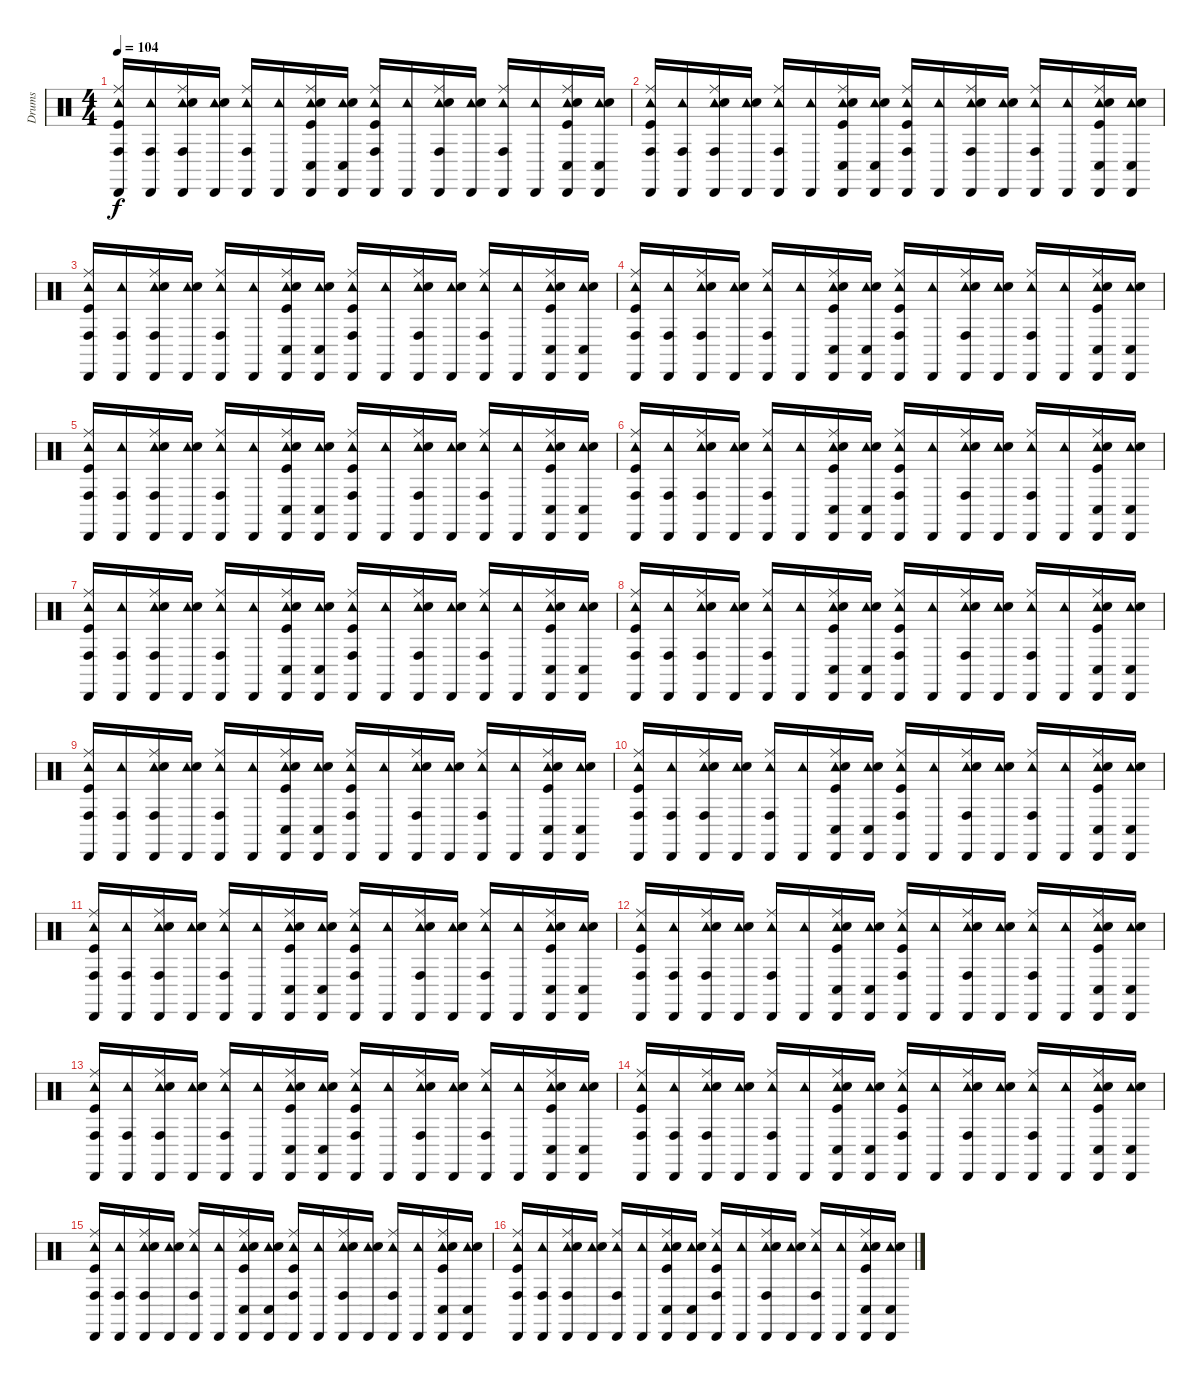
\track ("Drums" "Drums") {instrument percussion}
\staff {score}
\articulation defaults
\ts (4 4)
\tempo 104
\clef neutral
\ks c
("Cabasa (hit)" "Conga high (hit)" "Tambourine (hit)" "Ride (middle)" "Kick (hit)").16{dy f} ("Cabasa (hit)" "Conga high (hit)" "Tambourine (hit)").16 ("Cabasa (hit)" "Conga high (hit)" "Tambourine (hit)" "Ride (middle)" "Electric Snare (hit)").16 ("Cabasa (hit)" "Tambourine (hit)" "Electric Snare (hit)").16 ("Cabasa (hit)" "Conga high (hit)" "Tambourine (hit)" "Ride (middle)").16 ("Cabasa (hit)" "Tambourine (hit)").16 ("Cabasa (hit)" "Conga low (hit)" "Tambourine (hit)" "Ride (middle)" "Electric Snare (hit)" "Kick (hit)").16 ("Cabasa (hit)" "Conga low (hit)" "Tambourine (hit)" "Electric Snare (hit)").16 ("Cabasa (hit)" "Conga high (hit)" "Tambourine (hit)" "Ride (middle)" "Kick (hit)").16 ("Cabasa (hit)" "Tambourine (hit)").16 ("Cabasa (hit)" "Conga high (hit)" "Tambourine (hit)" "Ride (middle)" "Electric Snare (hit)").16 ("Cabasa (hit)" "Tambourine (hit)" "Electric Snare (hit)").16 ("Cabasa (hit)" "Conga high (hit)" "Tambourine (hit)" "Ride (middle)").16 ("Cabasa (hit)" "Tambourine (hit)").16 ("Cabasa (hit)" "Conga low (hit)" "Tambourine (hit)" "Ride (middle)" "Electric Snare (hit)" "Kick (hit)").16 ("Cabasa (hit)" "Conga low (hit)" "Tambourine (hit)" "Electric Snare (hit)").16 |
("Cabasa (hit)" "Conga high (hit)" "Tambourine (hit)" "Ride (middle)" "Kick (hit)").16 ("Cabasa (hit)" "Conga high (hit)" "Tambourine (hit)").16 ("Cabasa (hit)" "Conga high (hit)" "Tambourine (hit)" "Ride (middle)" "Electric Snare (hit)").16 ("Cabasa (hit)" "Tambourine (hit)" "Electric Snare (hit)").16 ("Cabasa (hit)" "Conga high (hit)" "Tambourine (hit)" "Ride (middle)").16 ("Cabasa (hit)" "Tambourine (hit)").16 ("Cabasa (hit)" "Conga low (hit)" "Tambourine (hit)" "Ride (middle)" "Electric Snare (hit)" "Kick (hit)").16 ("Cabasa (hit)" "Conga low (hit)" "Tambourine (hit)" "Electric Snare (hit)").16 ("Cabasa (hit)" "Conga high (hit)" "Tambourine (hit)" "Ride (middle)" "Kick (hit)").16 ("Cabasa (hit)" "Tambourine (hit)").16 ("Cabasa (hit)" "Conga high (hit)" "Tambourine (hit)" "Ride (middle)" "Electric Snare (hit)").16 ("Cabasa (hit)" "Tambourine (hit)" "Electric Snare (hit)").16 ("Cabasa (hit)" "Conga high (hit)" "Tambourine (hit)" "Ride (middle)").16 ("Cabasa (hit)" "Tambourine (hit)").16 ("Cabasa (hit)" "Conga low (hit)" "Tambourine (hit)" "Ride (middle)" "Electric Snare (hit)" "Kick (hit)").16 ("Cabasa (hit)" "Conga low (hit)" "Tambourine (hit)" "Electric Snare (hit)").16 |
("Cabasa (hit)" "Conga high (hit)" "Tambourine (hit)" "Ride (middle)" "Kick (hit)").16 ("Cabasa (hit)" "Conga high (hit)" "Tambourine (hit)").16 ("Cabasa (hit)" "Conga high (hit)" "Tambourine (hit)" "Ride (middle)" "Electric Snare (hit)").16 ("Cabasa (hit)" "Tambourine (hit)" "Electric Snare (hit)").16 ("Cabasa (hit)" "Conga high (hit)" "Tambourine (hit)" "Ride (middle)").16 ("Cabasa (hit)" "Tambourine (hit)").16 ("Cabasa (hit)" "Conga low (hit)" "Tambourine (hit)" "Ride (middle)" "Electric Snare (hit)" "Kick (hit)").16 ("Cabasa (hit)" "Conga low (hit)" "Tambourine (hit)" "Electric Snare (hit)").16 ("Cabasa (hit)" "Conga high (hit)" "Tambourine (hit)" "Ride (middle)" "Kick (hit)").16 ("Cabasa (hit)" "Tambourine (hit)").16 ("Cabasa (hit)" "Conga high (hit)" "Tambourine (hit)" "Ride (middle)" "Electric Snare (hit)").16 ("Cabasa (hit)" "Tambourine (hit)" "Electric Snare (hit)").16 ("Cabasa (hit)" "Conga high (hit)" "Tambourine (hit)" "Ride (middle)").16 ("Cabasa (hit)" "Tambourine (hit)").16 ("Cabasa (hit)" "Conga low (hit)" "Tambourine (hit)" "Ride (middle)" "Electric Snare (hit)" "Kick (hit)").16 ("Cabasa (hit)" "Conga low (hit)" "Tambourine (hit)" "Electric Snare (hit)").16 |
("Cabasa (hit)" "Conga high (hit)" "Tambourine (hit)" "Ride (middle)" "Kick (hit)").16 ("Cabasa (hit)" "Conga high (hit)" "Tambourine (hit)").16 ("Cabasa (hit)" "Conga high (hit)" "Tambourine (hit)" "Ride (middle)" "Electric Snare (hit)").16 ("Cabasa (hit)" "Tambourine (hit)" "Electric Snare (hit)").16 ("Cabasa (hit)" "Conga high (hit)" "Tambourine (hit)" "Ride (middle)").16 ("Cabasa (hit)" "Tambourine (hit)").16 ("Cabasa (hit)" "Conga low (hit)" "Tambourine (hit)" "Ride (middle)" "Electric Snare (hit)" "Kick (hit)").16 ("Cabasa (hit)" "Conga low (hit)" "Tambourine (hit)" "Electric Snare (hit)").16 ("Cabasa (hit)" "Conga high (hit)" "Tambourine (hit)" "Ride (middle)" "Kick (hit)").16 ("Cabasa (hit)" "Tambourine (hit)").16 ("Cabasa (hit)" "Conga high (hit)" "Tambourine (hit)" "Ride (middle)" "Electric Snare (hit)").16 ("Cabasa (hit)" "Tambourine (hit)" "Electric Snare (hit)").16 ("Cabasa (hit)" "Conga high (hit)" "Tambourine (hit)" "Ride (middle)").16 ("Cabasa (hit)" "Tambourine (hit)").16 ("Cabasa (hit)" "Conga low (hit)" "Tambourine (hit)" "Ride (middle)" "Electric Snare (hit)" "Kick (hit)").16 ("Cabasa (hit)" "Conga low (hit)" "Tambourine (hit)" "Electric Snare (hit)").16 |
("Cabasa (hit)" "Conga high (hit)" "Tambourine (hit)" "Ride (middle)" "Kick (hit)").16 ("Cabasa (hit)" "Conga high (hit)" "Tambourine (hit)").16 ("Cabasa (hit)" "Conga high (hit)" "Tambourine (hit)" "Ride (middle)" "Electric Snare (hit)").16 ("Cabasa (hit)" "Tambourine (hit)" "Electric Snare (hit)").16 ("Cabasa (hit)" "Conga high (hit)" "Tambourine (hit)" "Ride (middle)").16 ("Cabasa (hit)" "Tambourine (hit)").16 ("Cabasa (hit)" "Conga low (hit)" "Tambourine (hit)" "Ride (middle)" "Electric Snare (hit)" "Kick (hit)").16 ("Cabasa (hit)" "Conga low (hit)" "Tambourine (hit)" "Electric Snare (hit)").16 ("Cabasa (hit)" "Conga high (hit)" "Tambourine (hit)" "Ride (middle)" "Kick (hit)").16 ("Cabasa (hit)" "Tambourine (hit)").16 ("Cabasa (hit)" "Conga high (hit)" "Tambourine (hit)" "Ride (middle)" "Electric Snare (hit)").16 ("Cabasa (hit)" "Tambourine (hit)" "Electric Snare (hit)").16 ("Cabasa (hit)" "Conga high (hit)" "Tambourine (hit)" "Ride (middle)").16 ("Cabasa (hit)" "Tambourine (hit)").16 ("Cabasa (hit)" "Conga low (hit)" "Tambourine (hit)" "Ride (middle)" "Electric Snare (hit)" "Kick (hit)").16 ("Cabasa (hit)" "Conga low (hit)" "Tambourine (hit)" "Electric Snare (hit)").16 |
("Cabasa (hit)" "Conga high (hit)" "Tambourine (hit)" "Ride (middle)" "Kick (hit)").16 ("Cabasa (hit)" "Conga high (hit)" "Tambourine (hit)").16 ("Cabasa (hit)" "Conga high (hit)" "Tambourine (hit)" "Ride (middle)" "Electric Snare (hit)").16 ("Cabasa (hit)" "Tambourine (hit)" "Electric Snare (hit)").16 ("Cabasa (hit)" "Conga high (hit)" "Tambourine (hit)" "Ride (middle)").16 ("Cabasa (hit)" "Tambourine (hit)").16 ("Cabasa (hit)" "Conga low (hit)" "Tambourine (hit)" "Ride (middle)" "Electric Snare (hit)" "Kick (hit)").16 ("Cabasa (hit)" "Conga low (hit)" "Tambourine (hit)" "Electric Snare (hit)").16 ("Cabasa (hit)" "Conga high (hit)" "Tambourine (hit)" "Ride (middle)" "Kick (hit)").16 ("Cabasa (hit)" "Tambourine (hit)").16 ("Cabasa (hit)" "Conga high (hit)" "Tambourine (hit)" "Ride (middle)" "Electric Snare (hit)").16 ("Cabasa (hit)" "Tambourine (hit)" "Electric Snare (hit)").16 ("Cabasa (hit)" "Conga high (hit)" "Tambourine (hit)" "Ride (middle)").16 ("Cabasa (hit)" "Tambourine (hit)").16 ("Cabasa (hit)" "Conga low (hit)" "Tambourine (hit)" "Ride (middle)" "Electric Snare (hit)" "Kick (hit)").16 ("Cabasa (hit)" "Conga low (hit)" "Tambourine (hit)" "Electric Snare (hit)").16 |
("Cabasa (hit)" "Conga high (hit)" "Tambourine (hit)" "Ride (middle)" "Kick (hit)").16 ("Cabasa (hit)" "Conga high (hit)" "Tambourine (hit)").16 ("Cabasa (hit)" "Conga high (hit)" "Tambourine (hit)" "Ride (middle)" "Electric Snare (hit)").16 ("Cabasa (hit)" "Tambourine (hit)" "Electric Snare (hit)").16 ("Cabasa (hit)" "Conga high (hit)" "Tambourine (hit)" "Ride (middle)").16 ("Cabasa (hit)" "Tambourine (hit)").16 ("Cabasa (hit)" "Conga low (hit)" "Tambourine (hit)" "Ride (middle)" "Electric Snare (hit)" "Kick (hit)").16 ("Cabasa (hit)" "Conga low (hit)" "Tambourine (hit)" "Electric Snare (hit)").16 ("Cabasa (hit)" "Conga high (hit)" "Tambourine (hit)" "Ride (middle)" "Kick (hit)").16 ("Cabasa (hit)" "Tambourine (hit)").16 ("Cabasa (hit)" "Conga high (hit)" "Tambourine (hit)" "Ride (middle)" "Electric Snare (hit)").16 ("Cabasa (hit)" "Tambourine (hit)" "Electric Snare (hit)").16 ("Cabasa (hit)" "Conga high (hit)" "Tambourine (hit)" "Ride (middle)").16 ("Cabasa (hit)" "Tambourine (hit)").16 ("Cabasa (hit)" "Conga low (hit)" "Tambourine (hit)" "Ride (middle)" "Electric Snare (hit)" "Kick (hit)").16 ("Cabasa (hit)" "Conga low (hit)" "Tambourine (hit)" "Electric Snare (hit)").16 |
("Cabasa (hit)" "Conga high (hit)" "Tambourine (hit)" "Ride (middle)" "Kick (hit)").16 ("Cabasa (hit)" "Conga high (hit)" "Tambourine (hit)").16 ("Cabasa (hit)" "Conga high (hit)" "Tambourine (hit)" "Ride (middle)" "Electric Snare (hit)").16 ("Cabasa (hit)" "Tambourine (hit)" "Electric Snare (hit)").16 ("Cabasa (hit)" "Conga high (hit)" "Tambourine (hit)" "Ride (middle)").16 ("Cabasa (hit)" "Tambourine (hit)").16 ("Cabasa (hit)" "Conga low (hit)" "Tambourine (hit)" "Ride (middle)" "Electric Snare (hit)" "Kick (hit)").16 ("Cabasa (hit)" "Conga low (hit)" "Tambourine (hit)" "Electric Snare (hit)").16 ("Cabasa (hit)" "Conga high (hit)" "Tambourine (hit)" "Ride (middle)" "Kick (hit)").16 ("Cabasa (hit)" "Tambourine (hit)").16 ("Cabasa (hit)" "Conga high (hit)" "Tambourine (hit)" "Ride (middle)" "Electric Snare (hit)").16 ("Cabasa (hit)" "Tambourine (hit)" "Electric Snare (hit)").16 ("Cabasa (hit)" "Conga high (hit)" "Tambourine (hit)" "Ride (middle)").16 ("Cabasa (hit)" "Tambourine (hit)").16 ("Cabasa (hit)" "Conga low (hit)" "Tambourine (hit)" "Ride (middle)" "Electric Snare (hit)" "Kick (hit)").16 ("Cabasa (hit)" "Conga low (hit)" "Tambourine (hit)" "Electric Snare (hit)").16 |
("Cabasa (hit)" "Conga high (hit)" "Tambourine (hit)" "Ride (middle)" "Kick (hit)").16 ("Cabasa (hit)" "Conga high (hit)" "Tambourine (hit)").16 ("Cabasa (hit)" "Conga high (hit)" "Tambourine (hit)" "Ride (middle)" "Electric Snare (hit)").16 ("Cabasa (hit)" "Tambourine (hit)" "Electric Snare (hit)").16 ("Cabasa (hit)" "Conga high (hit)" "Tambourine (hit)" "Ride (middle)").16 ("Cabasa (hit)" "Tambourine (hit)").16 ("Cabasa (hit)" "Conga low (hit)" "Tambourine (hit)" "Ride (middle)" "Electric Snare (hit)" "Kick (hit)").16 ("Cabasa (hit)" "Conga low (hit)" "Tambourine (hit)" "Electric Snare (hit)").16 ("Cabasa (hit)" "Conga high (hit)" "Tambourine (hit)" "Ride (middle)" "Kick (hit)").16 ("Cabasa (hit)" "Tambourine (hit)").16 ("Cabasa (hit)" "Conga high (hit)" "Tambourine (hit)" "Ride (middle)" "Electric Snare (hit)").16 ("Cabasa (hit)" "Tambourine (hit)" "Electric Snare (hit)").16 ("Cabasa (hit)" "Conga high (hit)" "Tambourine (hit)" "Ride (middle)").16 ("Cabasa (hit)" "Tambourine (hit)").16 ("Cabasa (hit)" "Conga low (hit)" "Tambourine (hit)" "Ride (middle)" "Electric Snare (hit)" "Kick (hit)").16 ("Cabasa (hit)" "Conga low (hit)" "Tambourine (hit)" "Electric Snare (hit)").16 |
("Cabasa (hit)" "Conga high (hit)" "Tambourine (hit)" "Ride (middle)" "Kick (hit)").16 ("Cabasa (hit)" "Conga high (hit)" "Tambourine (hit)").16 ("Cabasa (hit)" "Conga high (hit)" "Tambourine (hit)" "Ride (middle)" "Electric Snare (hit)").16 ("Cabasa (hit)" "Tambourine (hit)" "Electric Snare (hit)").16 ("Cabasa (hit)" "Conga high (hit)" "Tambourine (hit)" "Ride (middle)").16 ("Cabasa (hit)" "Tambourine (hit)").16 ("Cabasa (hit)" "Conga low (hit)" "Tambourine (hit)" "Ride (middle)" "Electric Snare (hit)" "Kick (hit)").16 ("Cabasa (hit)" "Conga low (hit)" "Tambourine (hit)" "Electric Snare (hit)").16 ("Cabasa (hit)" "Conga high (hit)" "Tambourine (hit)" "Ride (middle)" "Kick (hit)").16 ("Cabasa (hit)" "Tambourine (hit)").16 ("Cabasa (hit)" "Conga high (hit)" "Tambourine (hit)" "Ride (middle)" "Electric Snare (hit)").16 ("Cabasa (hit)" "Tambourine (hit)" "Electric Snare (hit)").16 ("Cabasa (hit)" "Conga high (hit)" "Tambourine (hit)" "Ride (middle)").16 ("Cabasa (hit)" "Tambourine (hit)").16 ("Cabasa (hit)" "Conga low (hit)" "Tambourine (hit)" "Ride (middle)" "Electric Snare (hit)" "Kick (hit)").16 ("Cabasa (hit)" "Conga low (hit)" "Tambourine (hit)" "Electric Snare (hit)").16 |
("Cabasa (hit)" "Conga high (hit)" "Tambourine (hit)" "Ride (middle)" "Kick (hit)").16 ("Cabasa (hit)" "Conga high (hit)" "Tambourine (hit)").16 ("Cabasa (hit)" "Conga high (hit)" "Tambourine (hit)" "Ride (middle)" "Electric Snare (hit)").16 ("Cabasa (hit)" "Tambourine (hit)" "Electric Snare (hit)").16 ("Cabasa (hit)" "Conga high (hit)" "Tambourine (hit)" "Ride (middle)").16 ("Cabasa (hit)" "Tambourine (hit)").16 ("Cabasa (hit)" "Conga low (hit)" "Tambourine (hit)" "Ride (middle)" "Electric Snare (hit)" "Kick (hit)").16 ("Cabasa (hit)" "Conga low (hit)" "Tambourine (hit)" "Electric Snare (hit)").16 ("Cabasa (hit)" "Conga high (hit)" "Tambourine (hit)" "Ride (middle)" "Kick (hit)").16 ("Cabasa (hit)" "Tambourine (hit)").16 ("Cabasa (hit)" "Conga high (hit)" "Tambourine (hit)" "Ride (middle)" "Electric Snare (hit)").16 ("Cabasa (hit)" "Tambourine (hit)" "Electric Snare (hit)").16 ("Cabasa (hit)" "Conga high (hit)" "Tambourine (hit)" "Ride (middle)").16 ("Cabasa (hit)" "Tambourine (hit)").16 ("Cabasa (hit)" "Conga low (hit)" "Tambourine (hit)" "Ride (middle)" "Electric Snare (hit)" "Kick (hit)").16 ("Cabasa (hit)" "Conga low (hit)" "Tambourine (hit)" "Electric Snare (hit)").16 |
("Cabasa (hit)" "Conga high (hit)" "Tambourine (hit)" "Ride (middle)" "Kick (hit)").16 ("Cabasa (hit)" "Conga high (hit)" "Tambourine (hit)").16 ("Cabasa (hit)" "Conga high (hit)" "Tambourine (hit)" "Ride (middle)" "Electric Snare (hit)").16 ("Cabasa (hit)" "Tambourine (hit)" "Electric Snare (hit)").16 ("Cabasa (hit)" "Conga high (hit)" "Tambourine (hit)" "Ride (middle)").16 ("Cabasa (hit)" "Tambourine (hit)").16 ("Cabasa (hit)" "Conga low (hit)" "Tambourine (hit)" "Ride (middle)" "Electric Snare (hit)" "Kick (hit)").16 ("Cabasa (hit)" "Conga low (hit)" "Tambourine (hit)" "Electric Snare (hit)").16 ("Cabasa (hit)" "Conga high (hit)" "Tambourine (hit)" "Ride (middle)" "Kick (hit)").16 ("Cabasa (hit)" "Tambourine (hit)").16 ("Cabasa (hit)" "Conga high (hit)" "Tambourine (hit)" "Ride (middle)" "Electric Snare (hit)").16 ("Cabasa (hit)" "Tambourine (hit)" "Electric Snare (hit)").16 ("Cabasa (hit)" "Conga high (hit)" "Tambourine (hit)" "Ride (middle)").16 ("Cabasa (hit)" "Tambourine (hit)").16 ("Cabasa (hit)" "Conga low (hit)" "Tambourine (hit)" "Ride (middle)" "Electric Snare (hit)" "Kick (hit)").16 ("Cabasa (hit)" "Conga low (hit)" "Tambourine (hit)" "Electric Snare (hit)").16 |
("Cabasa (hit)" "Conga high (hit)" "Tambourine (hit)" "Ride (middle)" "Kick (hit)").16 ("Cabasa (hit)" "Conga high (hit)" "Tambourine (hit)").16 ("Cabasa (hit)" "Conga high (hit)" "Tambourine (hit)" "Ride (middle)" "Electric Snare (hit)").16 ("Cabasa (hit)" "Tambourine (hit)" "Electric Snare (hit)").16 ("Cabasa (hit)" "Conga high (hit)" "Tambourine (hit)" "Ride (middle)").16 ("Cabasa (hit)" "Tambourine (hit)").16 ("Cabasa (hit)" "Conga low (hit)" "Tambourine (hit)" "Ride (middle)" "Electric Snare (hit)" "Kick (hit)").16 ("Cabasa (hit)" "Conga low (hit)" "Tambourine (hit)" "Electric Snare (hit)").16 ("Cabasa (hit)" "Conga high (hit)" "Tambourine (hit)" "Ride (middle)" "Kick (hit)").16 ("Cabasa (hit)" "Tambourine (hit)").16 ("Cabasa (hit)" "Conga high (hit)" "Tambourine (hit)" "Ride (middle)" "Electric Snare (hit)").16 ("Cabasa (hit)" "Tambourine (hit)" "Electric Snare (hit)").16 ("Cabasa (hit)" "Conga high (hit)" "Tambourine (hit)" "Ride (middle)").16 ("Cabasa (hit)" "Tambourine (hit)").16 ("Cabasa (hit)" "Conga low (hit)" "Tambourine (hit)" "Ride (middle)" "Electric Snare (hit)" "Kick (hit)").16 ("Cabasa (hit)" "Conga low (hit)" "Tambourine (hit)" "Electric Snare (hit)").16 |
("Cabasa (hit)" "Conga high (hit)" "Tambourine (hit)" "Ride (middle)" "Kick (hit)").16 ("Cabasa (hit)" "Conga high (hit)" "Tambourine (hit)").16 ("Cabasa (hit)" "Conga high (hit)" "Tambourine (hit)" "Ride (middle)" "Electric Snare (hit)").16 ("Cabasa (hit)" "Tambourine (hit)" "Electric Snare (hit)").16 ("Cabasa (hit)" "Conga high (hit)" "Tambourine (hit)" "Ride (middle)").16 ("Cabasa (hit)" "Tambourine (hit)").16 ("Cabasa (hit)" "Conga low (hit)" "Tambourine (hit)" "Ride (middle)" "Electric Snare (hit)" "Kick (hit)").16 ("Cabasa (hit)" "Conga low (hit)" "Tambourine (hit)" "Electric Snare (hit)").16 ("Cabasa (hit)" "Conga high (hit)" "Tambourine (hit)" "Ride (middle)" "Kick (hit)").16 ("Cabasa (hit)" "Tambourine (hit)").16 ("Cabasa (hit)" "Conga high (hit)" "Tambourine (hit)" "Ride (middle)" "Electric Snare (hit)").16 ("Cabasa (hit)" "Tambourine (hit)" "Electric Snare (hit)").16 ("Cabasa (hit)" "Conga high (hit)" "Tambourine (hit)" "Ride (middle)").16 ("Cabasa (hit)" "Tambourine (hit)").16 ("Cabasa (hit)" "Conga low (hit)" "Tambourine (hit)" "Ride (middle)" "Electric Snare (hit)" "Kick (hit)").16 ("Cabasa (hit)" "Conga low (hit)" "Tambourine (hit)" "Electric Snare (hit)").16 |
("Cabasa (hit)" "Conga high (hit)" "Tambourine (hit)" "Ride (middle)" "Kick (hit)").16 ("Cabasa (hit)" "Conga high (hit)" "Tambourine (hit)").16 ("Cabasa (hit)" "Conga high (hit)" "Tambourine (hit)" "Ride (middle)" "Electric Snare (hit)").16 ("Cabasa (hit)" "Tambourine (hit)" "Electric Snare (hit)").16 ("Cabasa (hit)" "Conga high (hit)" "Tambourine (hit)" "Ride (middle)").16 ("Cabasa (hit)" "Tambourine (hit)").16 ("Cabasa (hit)" "Conga low (hit)" "Tambourine (hit)" "Ride (middle)" "Electric Snare (hit)" "Kick (hit)").16 ("Cabasa (hit)" "Conga low (hit)" "Tambourine (hit)" "Electric Snare (hit)").16 ("Cabasa (hit)" "Conga high (hit)" "Tambourine (hit)" "Ride (middle)" "Kick (hit)").16 ("Cabasa (hit)" "Tambourine (hit)").16 ("Cabasa (hit)" "Conga high (hit)" "Tambourine (hit)" "Ride (middle)" "Electric Snare (hit)").16 ("Cabasa (hit)" "Tambourine (hit)" "Electric Snare (hit)").16 ("Cabasa (hit)" "Conga high (hit)" "Tambourine (hit)" "Ride (middle)").16 ("Cabasa (hit)" "Tambourine (hit)").16 ("Cabasa (hit)" "Conga low (hit)" "Tambourine (hit)" "Ride (middle)" "Electric Snare (hit)" "Kick (hit)").16 ("Cabasa (hit)" "Conga low (hit)" "Tambourine (hit)" "Electric Snare (hit)").16 |
("Cabasa (hit)" "Conga high (hit)" "Tambourine (hit)" "Ride (middle)" "Kick (hit)").16 ("Cabasa (hit)" "Conga high (hit)" "Tambourine (hit)").16 ("Cabasa (hit)" "Conga high (hit)" "Tambourine (hit)" "Ride (middle)" "Electric Snare (hit)").16 ("Cabasa (hit)" "Tambourine (hit)" "Electric Snare (hit)").16 ("Cabasa (hit)" "Conga high (hit)" "Tambourine (hit)" "Ride (middle)").16 ("Cabasa (hit)" "Tambourine (hit)").16 ("Cabasa (hit)" "Conga low (hit)" "Tambourine (hit)" "Ride (middle)" "Electric Snare (hit)" "Kick (hit)").16 ("Cabasa (hit)" "Conga low (hit)" "Tambourine (hit)" "Electric Snare (hit)").16 ("Cabasa (hit)" "Conga high (hit)" "Tambourine (hit)" "Ride (middle)" "Kick (hit)").16 ("Cabasa (hit)" "Tambourine (hit)").16 ("Cabasa (hit)" "Conga high (hit)" "Tambourine (hit)" "Ride (middle)" "Electric Snare (hit)").16 ("Cabasa (hit)" "Tambourine (hit)" "Electric Snare (hit)").16 ("Cabasa (hit)" "Conga high (hit)" "Tambourine (hit)" "Ride (middle)").16 ("Cabasa (hit)" "Tambourine (hit)").16 ("Cabasa (hit)" "Conga low (hit)" "Tambourine (hit)" "Ride (middle)" "Electric Snare (hit)" "Kick (hit)").16 ("Cabasa (hit)" "Conga low (hit)" "Tambourine (hit)" "Electric Snare (hit)").16
